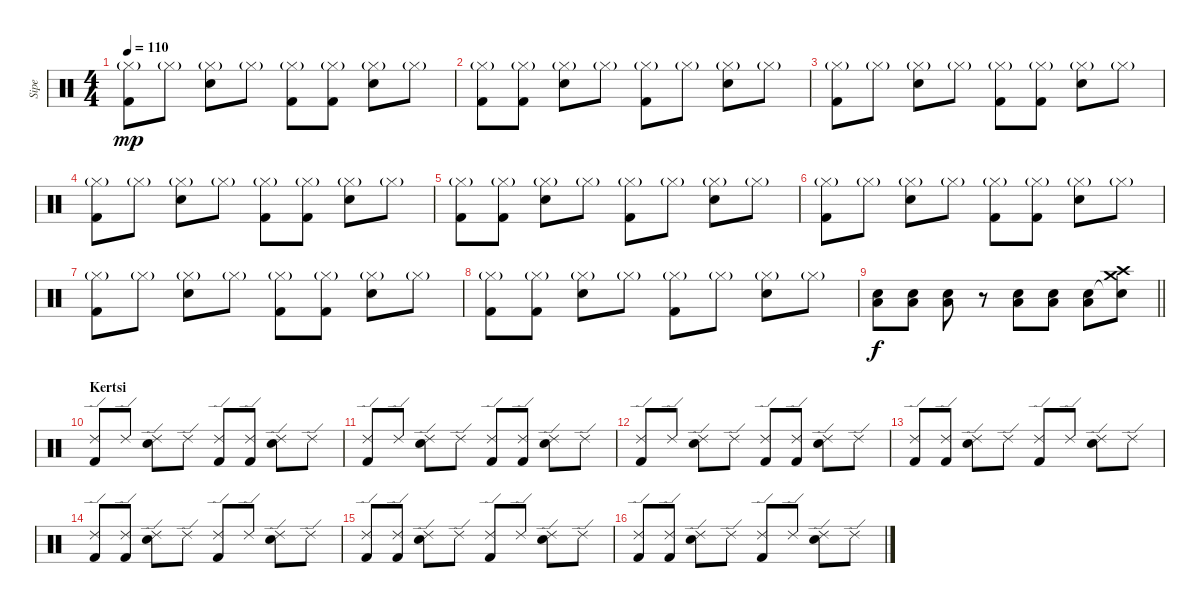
\track ("Sipe" "Sipe") {instrument percussion}
\staff {score}
\articulation defaults
\ts (4 4)
\tempo 110
\clef neutral
\ks c
("Hi-Hat (closed)"{g} "Kick (hit) 2").8{dy mp} "Hi-Hat (closed)"{g}.8 ("Hi-Hat (closed)"{g} "Snare (hit) 2").8 "Hi-Hat (closed)"{g}.8 ("Hi-Hat (closed)"{g} "Kick (hit) 2").8 ("Hi-Hat (closed)"{g} "Kick (hit) 2").8 ("Hi-Hat (closed)"{g} "Snare (hit) 2").8 "Hi-Hat (closed)"{g}.8 |
("Hi-Hat (closed)"{g} "Kick (hit) 2").8 ("Hi-Hat (closed)"{g} "Kick (hit) 2").8 ("Hi-Hat (closed)"{g} "Snare (hit) 2").8 "Hi-Hat (closed)"{g}.8 ("Hi-Hat (closed)"{g} "Kick (hit) 2").8 "Hi-Hat (closed)"{g}.8 ("Hi-Hat (closed)"{g} "Snare (hit) 2").8 "Hi-Hat (closed)"{g}.8 |
("Hi-Hat (closed)"{g} "Kick (hit) 2").8 "Hi-Hat (closed)"{g}.8 ("Hi-Hat (closed)"{g} "Snare (hit) 2").8 "Hi-Hat (closed)"{g}.8 ("Hi-Hat (closed)"{g} "Kick (hit) 2").8 ("Hi-Hat (closed)"{g} "Kick (hit) 2").8 ("Hi-Hat (closed)"{g} "Snare (hit) 2").8 "Hi-Hat (closed)"{g}.8 |
("Hi-Hat (closed)"{g} "Kick (hit) 2").8 "Hi-Hat (closed)"{g}.8 ("Hi-Hat (closed)"{g} "Snare (hit) 2").8 "Hi-Hat (closed)"{g}.8 ("Hi-Hat (closed)"{g} "Kick (hit) 2").8 ("Hi-Hat (closed)"{g} "Kick (hit) 2").8 ("Hi-Hat (closed)"{g} "Snare (hit) 2").8 "Hi-Hat (closed)"{g}.8 |
("Hi-Hat (closed)"{g} "Kick (hit) 2").8 ("Hi-Hat (closed)"{g} "Kick (hit) 2").8 ("Hi-Hat (closed)"{g} "Snare (hit) 2").8 "Hi-Hat (closed)"{g}.8 ("Hi-Hat (closed)"{g} "Kick (hit) 2").8 "Hi-Hat (closed)"{g}.8 ("Hi-Hat (closed)"{g} "Snare (hit) 2").8 "Hi-Hat (closed)"{g}.8 |
("Hi-Hat (closed)"{g} "Kick (hit) 2").8 "Hi-Hat (closed)"{g}.8 ("Hi-Hat (closed)"{g} "Snare (hit) 2").8 "Hi-Hat (closed)"{g}.8 ("Hi-Hat (closed)"{g} "Kick (hit) 2").8 ("Hi-Hat (closed)"{g} "Kick (hit) 2").8 ("Hi-Hat (closed)"{g} "Snare (hit) 2").8 "Hi-Hat (closed)"{g}.8 |
("Hi-Hat (closed)"{g} "Kick (hit) 2").8 "Hi-Hat (closed)"{g}.8 ("Hi-Hat (closed)"{g} "Snare (hit) 2").8 "Hi-Hat (closed)"{g}.8 ("Hi-Hat (closed)"{g} "Kick (hit) 2").8 ("Hi-Hat (closed)"{g} "Kick (hit) 2").8 ("Hi-Hat (closed)"{g} "Snare (hit) 2").8 "Hi-Hat (closed)"{g}.8 |
("Hi-Hat (closed)"{g} "Kick (hit) 2").8 ("Hi-Hat (closed)"{g} "Kick (hit) 2").8 ("Hi-Hat (closed)"{g} "Snare (hit) 2").8 "Hi-Hat (closed)"{g}.8 ("Hi-Hat (closed)"{g} "Kick (hit) 2").8 "Hi-Hat (closed)"{g}.8 ("Hi-Hat (closed)"{g} "Snare (hit) 2").8 "Hi-Hat (closed)"{g}.8 |
\barLineRight lightlight
("Low Tom (hit)" "Snare (hit) 2").8{dy f} ("Low Tom (hit)" "Snare (hit) 2").8 ("Low Tom (hit)" "Snare (hit) 2").8 r.8 ("Snare (hit) 2" "Low Tom (hit)").8 ("Snare (hit) 2" "Low Tom (hit)").8 ("Snare (hit) 2" "Low Tom (hit)").8 ("Snare (hit)"{t} "Crash medium (hit)" "Crash high (hit)").8 |
\section ("" "Kertsi")
("Ride (edge) 2" "Kick (hit) 2").8 "Ride (edge) 2".8 ("Ride (edge) 2" "Snare (hit) 2").8 "Ride (edge) 2".8 ("Ride (edge) 2" "Kick (hit) 2").8 ("Ride (edge) 2" "Kick (hit) 2").8 ("Ride (edge) 2" "Snare (hit) 2").8 "Ride (edge) 2".8 |
("Ride (edge) 2" "Kick (hit) 2").8 "Ride (edge) 2".8 ("Ride (edge) 2" "Snare (hit) 2").8 "Ride (edge) 2".8 ("Ride (edge) 2" "Kick (hit) 2").8 ("Ride (edge) 2" "Kick (hit) 2").8 ("Ride (edge) 2" "Snare (hit) 2").8 "Ride (edge) 2".8 |
("Ride (edge) 2" "Kick (hit) 2").8 "Ride (edge) 2".8 ("Ride (edge) 2" "Snare (hit) 2").8 "Ride (edge) 2".8 ("Ride (edge) 2" "Kick (hit) 2").8 ("Ride (edge) 2" "Kick (hit) 2").8 ("Ride (edge) 2" "Snare (hit) 2").8 "Ride (edge) 2".8 |
("Ride (edge) 2" "Kick (hit) 2").8 ("Ride (edge) 2" "Kick (hit) 2").8 ("Ride (edge) 2" "Snare (hit) 2").8 "Ride (edge) 2".8 ("Ride (edge) 2" "Kick (hit) 2").8 "Ride (edge) 2".8 ("Ride (edge) 2" "Snare (hit) 2").8 "Ride (edge) 2".8 |
("Ride (edge) 2" "Kick (hit) 2").8 ("Ride (edge) 2" "Kick (hit) 2").8 ("Ride (edge) 2" "Snare (hit) 2").8 "Ride (edge) 2".8 ("Ride (edge) 2" "Kick (hit) 2").8 "Ride (edge) 2".8 ("Ride (edge) 2" "Snare (hit) 2").8 "Ride (edge) 2".8 |
("Ride (edge) 2" "Kick (hit) 2").8 ("Ride (edge) 2" "Kick (hit) 2").8 ("Ride (edge) 2" "Snare (hit) 2").8 "Ride (edge) 2".8 ("Ride (edge) 2" "Kick (hit) 2").8 "Ride (edge) 2".8 ("Ride (edge) 2" "Snare (hit) 2").8 "Ride (edge) 2".8 |
("Ride (edge) 2" "Kick (hit) 2").8 ("Ride (edge) 2" "Kick (hit) 2").8 ("Ride (edge) 2" "Snare (hit) 2").8 "Ride (edge) 2".8 ("Ride (edge) 2" "Kick (hit) 2").8 "Ride (edge) 2".8 ("Ride (edge) 2" "Snare (hit) 2").8 "Ride (edge) 2".8
